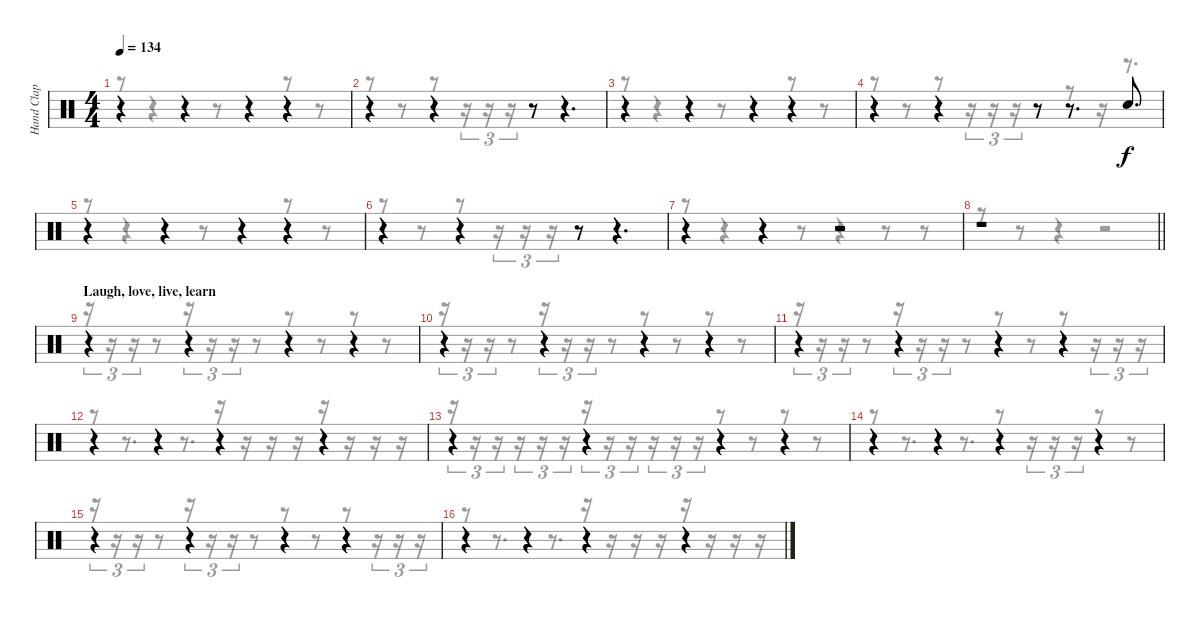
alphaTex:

\track ("Hand Clap" "Hand Clap") {instrument percussion}
\staff {score}
\articulation defaults
\voice
\ts (4 4)
\tempo 134
\clef neutral
\ks c
r.4{dy f} r.4 r.4 r.4 |
r.4 r.4 r.8 r.4{d} |
r.4 r.4 r.4 r.4 |
r.4 r.4 r.8 r.8{d} "Hand Clap (hit)".8{d} |
r.4 r.4 r.4 r.4 |
r.4 r.4 r.8 r.4{d} |
r.4 r.4 r.2 |
\barLineRight lightlight
r.1 |
\section ("" "Laugh, love, live, learn")
r.4 r.4 r.4 r.4 |
r.4 r.4 r.4 r.4 |
r.4 r.4 r.4 r.4 |
r.4 r.4 r.4 r.4 |
r.4 r.4 r.4 r.4 |
r.4 r.4 r.4 r.4 |
r.4 r.4 r.4 r.4 |
r.4 r.4 r.4 r.4
\voice
\clef neutral
\ottava regular
\simile none
\ks c
r.8{dy f} r.4 r.8 r.4 r.8 r.8 |
r.8 r.8 r.8 r.16{tu (3 2)} r.16{tu (3 2)} r.16{tu (3 2)} r.8 r.4{d} |
r.8 r.4 r.8 r.4 r.8 r.8 |
r.8 r.8 r.8 r.16{tu (3 2)} r.16{tu (3 2)} r.16{tu (3 2)} r.8 r.8 r.16 r.8{d} |
r.8 r.4 r.8 r.4 r.8 r.8 |
r.8 r.8 r.8 r.16{tu (3 2)} r.16{tu (3 2)} r.16{tu (3 2)} r.8 r.4{d} |
r.8 r.4 r.8 r.4 r.8 r.8 |
\barLineRight lightlight
r.8 r.8 r.4 r.2 |
r.16{tu (3 2)} r.16{tu (3 2)} r.16{tu (3 2)} r.8 r.16{tu (3 2)} r.16{tu (3 2)} r.16{tu (3 2)} r.8 r.8 r.8 r.8 r.8 |
r.16{tu (3 2)} r.16{tu (3 2)} r.16{tu (3 2)} r.8 r.16{tu (3 2)} r.16{tu (3 2)} r.16{tu (3 2)} r.8 r.8 r.8 r.8 r.8 |
r.16{tu (3 2)} r.16{tu (3 2)} r.16{tu (3 2)} r.8 r.16{tu (3 2)} r.16{tu (3 2)} r.16{tu (3 2)} r.8 r.8 r.8 r.8 r.16{tu (3 2)} r.16{tu (3 2)} r.16{tu (3 2)} |
r.8 r.8{d} r.8{d} r.16 r.16 r.16 r.16 r.16 r.16 r.16 r.16 |
r.16{tu (3 2)} r.16{tu (3 2)} r.16{tu (3 2)} r.16{tu (3 2)} r.16{tu (3 2)} r.16{tu (3 2)} r.16{tu (3 2)} r.16{tu (3 2)} r.16{tu (3 2)} r.16{tu (3 2)} r.16{tu (3 2)} r.16{tu (3 2)} r.8 r.8 r.8 r.8 |
r.8 r.8{d} r.8{d} r.8 r.16{tu (3 2)} r.16{tu (3 2)} r.16{tu (3 2)} r.8 r.8 |
r.16{tu (3 2)} r.16{tu (3 2)} r.16{tu (3 2)} r.8 r.16{tu (3 2)} r.16{tu (3 2)} r.16{tu (3 2)} r.8 r.8 r.8 r.8 r.16{tu (3 2)} r.16{tu (3 2)} r.16{tu (3 2)} |
r.8 r.8{d} r.8{d} r.16 r.16 r.16 r.16 r.16 r.16 r.16 r.16
